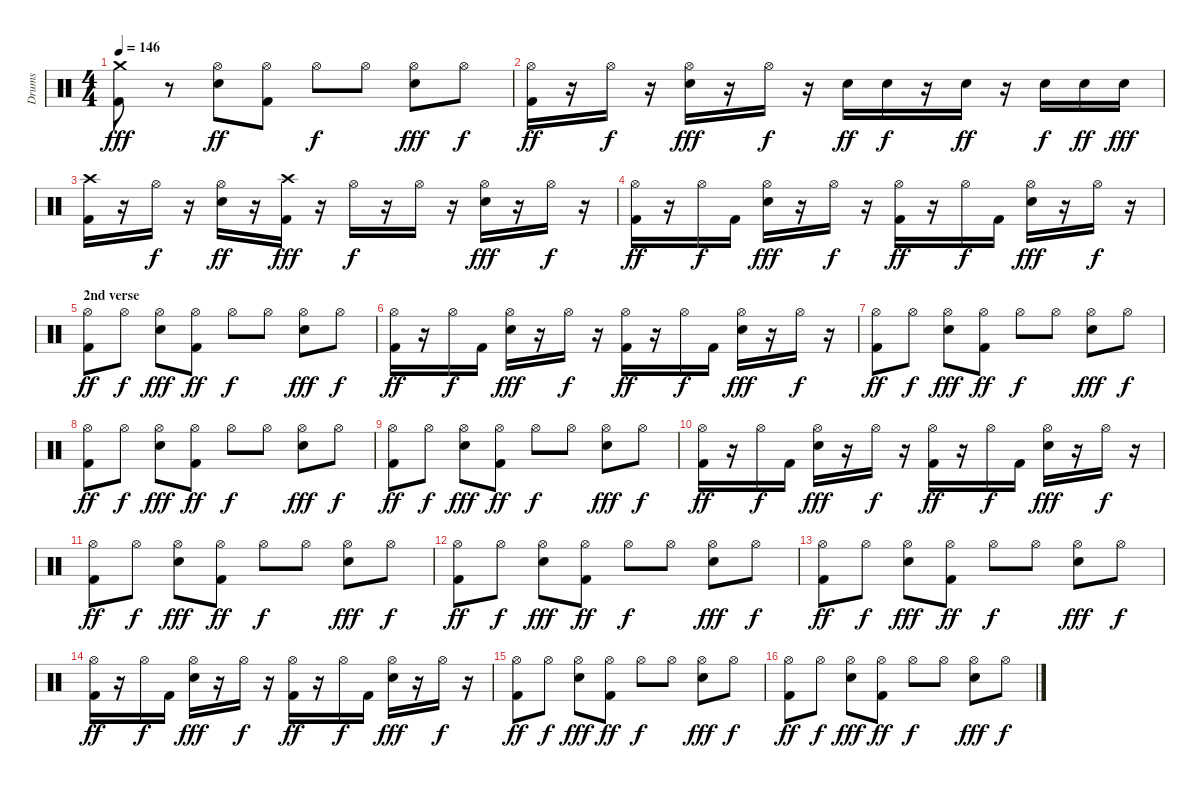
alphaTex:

\track ("Drums" "Drums") {instrument percussion}
\staff {score}
\articulation defaults
\ts (4 4)
\tempo 146
\clef neutral
\ks c
("Kick (hit) 2" "Crash medium (hit)").8{dy fff} r.8 ("Hi-Hat (open)" "Snare (hit) 2").8{dy ff} ("Hi-Hat (open)" "Kick (hit) 2").8 "Hi-Hat (open)".8{dy f} "Hi-Hat (open)".8 ("Snare (hit) 2" "Hi-Hat (open)").8{dy fff} "Hi-Hat (open)".8{dy f} |
("Kick (hit) 2" "Hi-Hat (open)").16{dy ff} r.16 "Hi-Hat (open)".16{dy f} r.16 ("Snare (hit) 2" "Hi-Hat (open)").16{dy fff} r.16 "Hi-Hat (open)".16{dy f} r.16 "Snare (hit) 2".16{dy ff} "Snare (hit) 2".16{dy f} r.16 "Snare (hit) 2".16{dy ff} r.16 "Snare (hit) 2".16{dy f} "Snare (hit) 2".16{dy ff} "Snare (hit) 2".16{dy fff} |
("Kick (hit) 2" "Crash high (hit)").16 r.16 "Hi-Hat (open)".16{dy f} r.16 ("Hi-Hat (open)" "Snare (hit) 2").16{dy ff} r.16 ("Kick (hit) 2" "Crash high (hit)").16{dy fff} r.16 "Hi-Hat (open)".16{dy f} r.16 "Hi-Hat (open)".16 r.16 ("Snare (hit) 2" "Hi-Hat (open)").16{dy fff} r.16 "Hi-Hat (open)".16{dy f} r.16 |
("Kick (hit) 2" "Hi-Hat (open)").16{dy ff} r.16 "Hi-Hat (open)".16{dy f} "Kick (hit) 2".16 ("Snare (hit) 2" "Hi-Hat (open)").16{dy fff} r.16 "Hi-Hat (open)".16{dy f} r.16 ("Kick (hit) 2" "Hi-Hat (open)").16{dy ff} r.16 "Hi-Hat (open)".16{dy f} "Kick (hit) 2".16 ("Snare (hit) 2" "Hi-Hat (open)").16{dy fff} r.16 "Hi-Hat (open)".16{dy f} r.16 |
\section ("" "2nd verse")
("Kick (hit) 2" "Hi-Hat (open)").8{dy ff} "Hi-Hat (open)".8{dy f} ("Snare (hit) 2" "Hi-Hat (open)").8{dy fff} ("Kick (hit) 2" "Hi-Hat (open)").8{dy ff} "Hi-Hat (open)".8{dy f} "Hi-Hat (open)".8 ("Snare (hit) 2" "Hi-Hat (open)").8{dy fff} "Hi-Hat (open)".8{dy f} |
("Kick (hit) 2" "Hi-Hat (open)").16{dy ff} r.16 "Hi-Hat (open)".16{dy f} "Kick (hit) 2".16 ("Snare (hit) 2" "Hi-Hat (open)").16{dy fff} r.16 "Hi-Hat (open)".16{dy f} r.16 ("Kick (hit) 2" "Hi-Hat (open)").16{dy ff} r.16 "Hi-Hat (open)".16{dy f} "Kick (hit) 2".16 ("Snare (hit) 2" "Hi-Hat (open)").16{dy fff} r.16 "Hi-Hat (open)".16{dy f} r.16 |
("Kick (hit) 2" "Hi-Hat (open)").8{dy ff} "Hi-Hat (open)".8{dy f} ("Snare (hit) 2" "Hi-Hat (open)").8{dy fff} ("Kick (hit) 2" "Hi-Hat (open)").8{dy ff} "Hi-Hat (open)".8{dy f} "Hi-Hat (open)".8 ("Snare (hit) 2" "Hi-Hat (open)").8{dy fff} "Hi-Hat (open)".8{dy f} |
("Kick (hit) 2" "Hi-Hat (open)").8{dy ff} "Hi-Hat (open)".8{dy f} ("Snare (hit) 2" "Hi-Hat (open)").8{dy fff} ("Kick (hit) 2" "Hi-Hat (open)").8{dy ff} "Hi-Hat (open)".8{dy f} "Hi-Hat (open)".8 ("Snare (hit) 2" "Hi-Hat (open)").8{dy fff} "Hi-Hat (open)".8{dy f} |
("Kick (hit) 2" "Hi-Hat (open)").8{dy ff} "Hi-Hat (open)".8{dy f} ("Snare (hit) 2" "Hi-Hat (open)").8{dy fff} ("Kick (hit) 2" "Hi-Hat (open)").8{dy ff} "Hi-Hat (open)".8{dy f} "Hi-Hat (open)".8 ("Snare (hit) 2" "Hi-Hat (open)").8{dy fff} "Hi-Hat (open)".8{dy f} |
("Kick (hit) 2" "Hi-Hat (open)").16{dy ff} r.16 "Hi-Hat (open)".16{dy f} "Kick (hit) 2".16 ("Snare (hit) 2" "Hi-Hat (open)").16{dy fff} r.16 "Hi-Hat (open)".16{dy f} r.16 ("Kick (hit) 2" "Hi-Hat (open)").16{dy ff} r.16 "Hi-Hat (open)".16{dy f} "Kick (hit) 2".16 ("Snare (hit) 2" "Hi-Hat (open)").16{dy fff} r.16 "Hi-Hat (open)".16{dy f} r.16 |
("Kick (hit) 2" "Hi-Hat (open)").8{dy ff} "Hi-Hat (open)".8{dy f} ("Snare (hit) 2" "Hi-Hat (open)").8{dy fff} ("Kick (hit) 2" "Hi-Hat (open)").8{dy ff} "Hi-Hat (open)".8{dy f} "Hi-Hat (open)".8 ("Snare (hit) 2" "Hi-Hat (open)").8{dy fff} "Hi-Hat (open)".8{dy f} |
("Kick (hit) 2" "Hi-Hat (open)").8{dy ff} "Hi-Hat (open)".8{dy f} ("Snare (hit) 2" "Hi-Hat (open)").8{dy fff} ("Kick (hit) 2" "Hi-Hat (open)").8{dy ff} "Hi-Hat (open)".8{dy f} "Hi-Hat (open)".8 ("Snare (hit) 2" "Hi-Hat (open)").8{dy fff} "Hi-Hat (open)".8{dy f} |
("Kick (hit) 2" "Hi-Hat (open)").8{dy ff} "Hi-Hat (open)".8{dy f} ("Snare (hit) 2" "Hi-Hat (open)").8{dy fff} ("Kick (hit) 2" "Hi-Hat (open)").8{dy ff} "Hi-Hat (open)".8{dy f} "Hi-Hat (open)".8 ("Snare (hit) 2" "Hi-Hat (open)").8{dy fff} "Hi-Hat (open)".8{dy f} |
("Kick (hit) 2" "Hi-Hat (open)").16{dy ff} r.16 "Hi-Hat (open)".16{dy f} "Kick (hit) 2".16 ("Snare (hit) 2" "Hi-Hat (open)").16{dy fff} r.16 "Hi-Hat (open)".16{dy f} r.16 ("Kick (hit) 2" "Hi-Hat (open)").16{dy ff} r.16 "Hi-Hat (open)".16{dy f} "Kick (hit) 2".16 ("Snare (hit) 2" "Hi-Hat (open)").16{dy fff} r.16 "Hi-Hat (open)".16{dy f} r.16 |
("Kick (hit) 2" "Hi-Hat (open)").8{dy ff} "Hi-Hat (open)".8{dy f} ("Snare (hit) 2" "Hi-Hat (open)").8{dy fff} ("Kick (hit) 2" "Hi-Hat (open)").8{dy ff} "Hi-Hat (open)".8{dy f} "Hi-Hat (open)".8 ("Snare (hit) 2" "Hi-Hat (open)").8{dy fff} "Hi-Hat (open)".8{dy f} |
("Kick (hit) 2" "Hi-Hat (open)").8{dy ff} "Hi-Hat (open)".8{dy f} ("Snare (hit) 2" "Hi-Hat (open)").8{dy fff} ("Kick (hit) 2" "Hi-Hat (open)").8{dy ff} "Hi-Hat (open)".8{dy f} "Hi-Hat (open)".8 ("Snare (hit) 2" "Hi-Hat (open)").8{dy fff} "Hi-Hat (open)".8{dy f}
